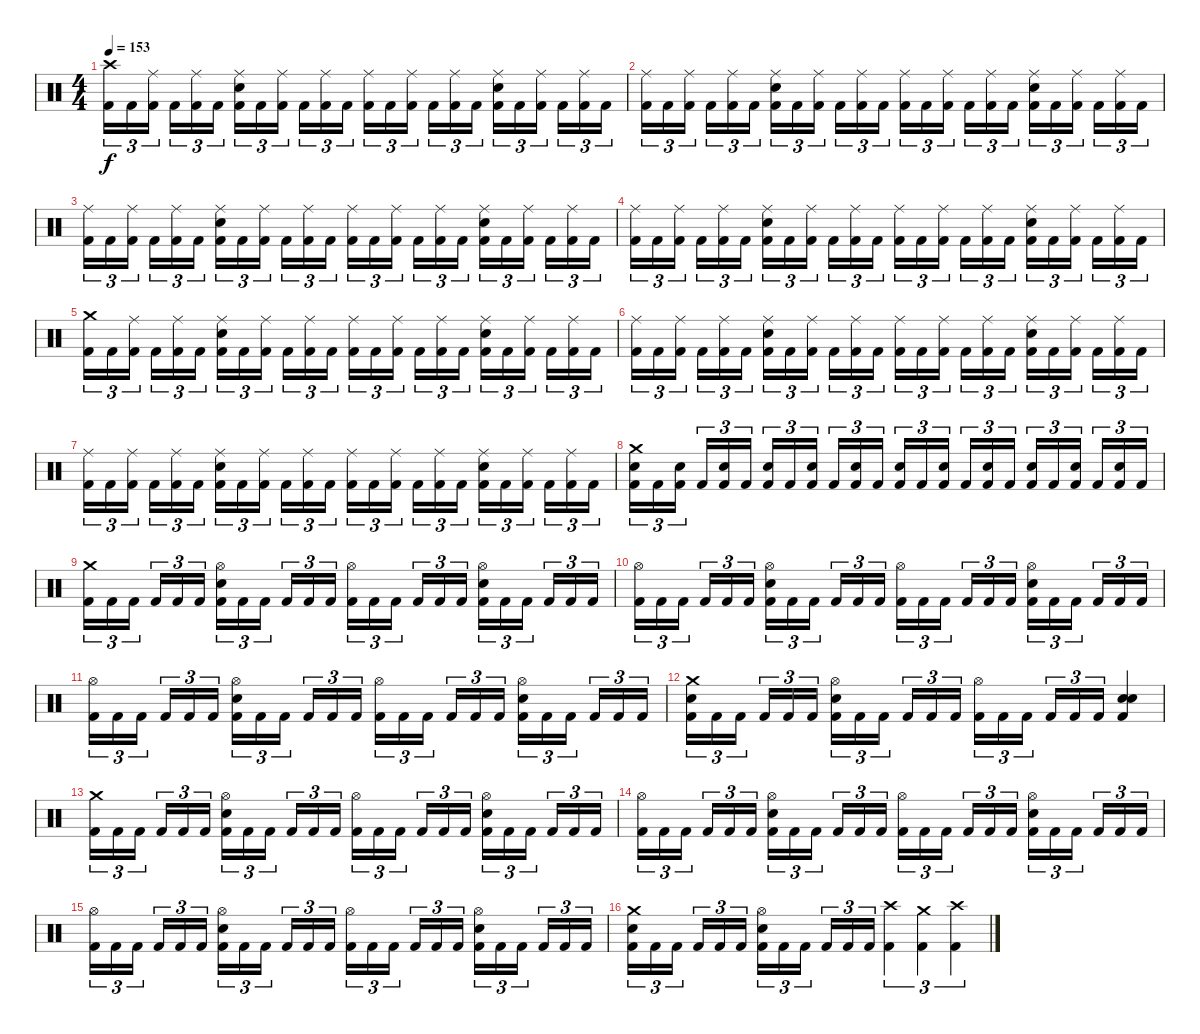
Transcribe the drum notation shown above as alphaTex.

\track "" {instrument percussion}
\staff {score}
\articulation defaults
\ts (4 4)
\section ("" "")
\tempo 153
\clef neutral
\ks c
("Crash high (hit)" "Kick (hit) 2").16{tu (3 2) dy f} "Kick (hit) 2".16{tu (3 2)} ("Ride (middle)" "Kick (hit) 2").16{tu (3 2)} "Kick (hit) 2".16{tu (3 2)} ("Ride (middle)" "Kick (hit) 2").16{tu (3 2)} "Kick (hit) 2".16{tu (3 2)} ("Ride (middle)" "Electric Snare (hit)" "Kick (hit) 2").16{tu (3 2)} "Kick (hit) 2".16{tu (3 2)} ("Ride (middle)" "Kick (hit) 2").16{tu (3 2)} "Kick (hit) 2".16{tu (3 2)} ("Ride (middle)" "Kick (hit) 2").16{tu (3 2)} "Kick (hit) 2".16{tu (3 2)} ("Ride (middle)" "Kick (hit) 2").16{tu (3 2)} "Kick (hit) 2".16{tu (3 2)} ("Ride (middle)" "Kick (hit) 2").16{tu (3 2)} "Kick (hit) 2".16{tu (3 2)} ("Ride (middle)" "Kick (hit) 2").16{tu (3 2)} "Kick (hit) 2".16{tu (3 2)} ("Ride (middle)" "Electric Snare (hit)" "Kick (hit) 2").16{tu (3 2)} "Kick (hit) 2".16{tu (3 2)} ("Ride (middle)" "Kick (hit) 2").16{tu (3 2)} "Kick (hit) 2".16{tu (3 2)} ("Ride (middle)" "Kick (hit) 2").16{tu (3 2)} "Kick (hit) 2".16{tu (3 2)} |
("Ride (middle)" "Kick (hit) 2").16{tu (3 2)} "Kick (hit) 2".16{tu (3 2)} ("Ride (middle)" "Kick (hit) 2").16{tu (3 2)} "Kick (hit) 2".16{tu (3 2)} ("Ride (middle)" "Kick (hit) 2").16{tu (3 2)} "Kick (hit) 2".16{tu (3 2)} ("Ride (middle)" "Electric Snare (hit)" "Kick (hit) 2").16{tu (3 2)} "Kick (hit) 2".16{tu (3 2)} ("Ride (middle)" "Kick (hit) 2").16{tu (3 2)} "Kick (hit) 2".16{tu (3 2)} ("Ride (middle)" "Kick (hit) 2").16{tu (3 2)} "Kick (hit) 2".16{tu (3 2)} ("Ride (middle)" "Kick (hit) 2").16{tu (3 2)} "Kick (hit) 2".16{tu (3 2)} ("Ride (middle)" "Kick (hit) 2").16{tu (3 2)} "Kick (hit) 2".16{tu (3 2)} ("Ride (middle)" "Kick (hit) 2").16{tu (3 2)} "Kick (hit) 2".16{tu (3 2)} ("Ride (middle)" "Electric Snare (hit)" "Kick (hit) 2").16{tu (3 2)} "Kick (hit) 2".16{tu (3 2)} ("Ride (middle)" "Kick (hit) 2").16{tu (3 2)} "Kick (hit) 2".16{tu (3 2)} ("Ride (middle)" "Kick (hit) 2").16{tu (3 2)} "Kick (hit) 2".16{tu (3 2)} |
("Ride (middle)" "Kick (hit) 2").16{tu (3 2)} "Kick (hit) 2".16{tu (3 2)} ("Ride (middle)" "Kick (hit) 2").16{tu (3 2)} "Kick (hit) 2".16{tu (3 2)} ("Ride (middle)" "Kick (hit) 2").16{tu (3 2)} "Kick (hit) 2".16{tu (3 2)} ("Ride (middle)" "Electric Snare (hit)" "Kick (hit) 2").16{tu (3 2)} "Kick (hit) 2".16{tu (3 2)} ("Ride (middle)" "Kick (hit) 2").16{tu (3 2)} "Kick (hit) 2".16{tu (3 2)} ("Ride (middle)" "Kick (hit) 2").16{tu (3 2)} "Kick (hit) 2".16{tu (3 2)} ("Ride (middle)" "Kick (hit) 2").16{tu (3 2)} "Kick (hit) 2".16{tu (3 2)} ("Ride (middle)" "Kick (hit) 2").16{tu (3 2)} "Kick (hit) 2".16{tu (3 2)} ("Ride (middle)" "Kick (hit) 2").16{tu (3 2)} "Kick (hit) 2".16{tu (3 2)} ("Ride (middle)" "Electric Snare (hit)" "Kick (hit) 2").16{tu (3 2)} "Kick (hit) 2".16{tu (3 2)} ("Ride (middle)" "Kick (hit) 2").16{tu (3 2)} "Kick (hit) 2".16{tu (3 2)} ("Ride (middle)" "Kick (hit) 2").16{tu (3 2)} "Kick (hit) 2".16{tu (3 2)} |
("Ride (middle)" "Kick (hit) 2").16{tu (3 2)} "Kick (hit) 2".16{tu (3 2)} ("Ride (middle)" "Kick (hit) 2").16{tu (3 2)} "Kick (hit) 2".16{tu (3 2)} ("Ride (middle)" "Kick (hit) 2").16{tu (3 2)} "Kick (hit) 2".16{tu (3 2)} ("Ride (middle)" "Electric Snare (hit)" "Kick (hit) 2").16{tu (3 2)} "Kick (hit) 2".16{tu (3 2)} ("Ride (middle)" "Kick (hit) 2").16{tu (3 2)} "Kick (hit) 2".16{tu (3 2)} ("Ride (middle)" "Kick (hit) 2").16{tu (3 2)} "Kick (hit) 2".16{tu (3 2)} ("Ride (middle)" "Kick (hit) 2").16{tu (3 2)} "Kick (hit) 2".16{tu (3 2)} ("Ride (middle)" "Kick (hit) 2").16{tu (3 2)} "Kick (hit) 2".16{tu (3 2)} ("Ride (middle)" "Kick (hit) 2").16{tu (3 2)} "Kick (hit) 2".16{tu (3 2)} ("Ride (middle)" "Electric Snare (hit)" "Kick (hit) 2").16{tu (3 2)} "Kick (hit) 2".16{tu (3 2)} ("Ride (middle)" "Kick (hit) 2").16{tu (3 2)} "Kick (hit) 2".16{tu (3 2)} ("Ride (middle)" "Kick (hit) 2").16{tu (3 2)} "Kick (hit) 2".16{tu (3 2)} |
("Crash medium (hit)" "Kick (hit) 2").16{tu (3 2)} "Kick (hit) 2".16{tu (3 2)} ("Ride (middle)" "Kick (hit) 2").16{tu (3 2)} "Kick (hit) 2".16{tu (3 2)} ("Ride (middle)" "Kick (hit) 2").16{tu (3 2)} "Kick (hit) 2".16{tu (3 2)} ("Ride (middle)" "Electric Snare (hit)" "Kick (hit) 2").16{tu (3 2)} "Kick (hit) 2".16{tu (3 2)} ("Ride (middle)" "Kick (hit) 2").16{tu (3 2)} "Kick (hit) 2".16{tu (3 2)} ("Ride (middle)" "Kick (hit) 2").16{tu (3 2)} "Kick (hit) 2".16{tu (3 2)} ("Ride (middle)" "Kick (hit) 2").16{tu (3 2)} "Kick (hit) 2".16{tu (3 2)} ("Ride (middle)" "Kick (hit) 2").16{tu (3 2)} "Kick (hit) 2".16{tu (3 2)} ("Ride (middle)" "Kick (hit) 2").16{tu (3 2)} "Kick (hit) 2".16{tu (3 2)} ("Ride (middle)" "Electric Snare (hit)" "Kick (hit) 2").16{tu (3 2)} "Kick (hit) 2".16{tu (3 2)} ("Ride (middle)" "Kick (hit) 2").16{tu (3 2)} "Kick (hit) 2".16{tu (3 2)} ("Ride (middle)" "Kick (hit) 2").16{tu (3 2)} "Kick (hit) 2".16{tu (3 2)} |
("Ride (middle)" "Kick (hit) 2").16{tu (3 2)} "Kick (hit) 2".16{tu (3 2)} ("Ride (middle)" "Kick (hit) 2").16{tu (3 2)} "Kick (hit) 2".16{tu (3 2)} ("Ride (middle)" "Kick (hit) 2").16{tu (3 2)} "Kick (hit) 2".16{tu (3 2)} ("Ride (middle)" "Electric Snare (hit)" "Kick (hit) 2").16{tu (3 2)} "Kick (hit) 2".16{tu (3 2)} ("Ride (middle)" "Kick (hit) 2").16{tu (3 2)} "Kick (hit) 2".16{tu (3 2)} ("Ride (middle)" "Kick (hit) 2").16{tu (3 2)} "Kick (hit) 2".16{tu (3 2)} ("Ride (middle)" "Kick (hit) 2").16{tu (3 2)} "Kick (hit) 2".16{tu (3 2)} ("Ride (middle)" "Kick (hit) 2").16{tu (3 2)} "Kick (hit) 2".16{tu (3 2)} ("Ride (middle)" "Kick (hit) 2").16{tu (3 2)} "Kick (hit) 2".16{tu (3 2)} ("Ride (middle)" "Electric Snare (hit)" "Kick (hit) 2").16{tu (3 2)} "Kick (hit) 2".16{tu (3 2)} ("Ride (middle)" "Kick (hit) 2").16{tu (3 2)} "Kick (hit) 2".16{tu (3 2)} ("Ride (middle)" "Kick (hit) 2").16{tu (3 2)} "Kick (hit) 2".16{tu (3 2)} |
("Ride (middle)" "Kick (hit) 2").16{tu (3 2)} "Kick (hit) 2".16{tu (3 2)} ("Ride (middle)" "Kick (hit) 2").16{tu (3 2)} "Kick (hit) 2".16{tu (3 2)} ("Ride (middle)" "Kick (hit) 2").16{tu (3 2)} "Kick (hit) 2".16{tu (3 2)} ("Ride (middle)" "Electric Snare (hit)" "Kick (hit) 2").16{tu (3 2)} "Kick (hit) 2".16{tu (3 2)} ("Ride (middle)" "Kick (hit) 2").16{tu (3 2)} "Kick (hit) 2".16{tu (3 2)} ("Ride (middle)" "Kick (hit) 2").16{tu (3 2)} "Kick (hit) 2".16{tu (3 2)} ("Ride (middle)" "Kick (hit) 2").16{tu (3 2)} "Kick (hit) 2".16{tu (3 2)} ("Ride (middle)" "Kick (hit) 2").16{tu (3 2)} "Kick (hit) 2".16{tu (3 2)} ("Ride (middle)" "Kick (hit) 2").16{tu (3 2)} "Kick (hit) 2".16{tu (3 2)} ("Ride (middle)" "Electric Snare (hit)" "Kick (hit) 2").16{tu (3 2)} "Kick (hit) 2".16{tu (3 2)} ("Ride (middle)" "Kick (hit) 2").16{tu (3 2)} "Kick (hit) 2".16{tu (3 2)} ("Ride (middle)" "Kick (hit) 2").16{tu (3 2)} "Kick (hit) 2".16{tu (3 2)} |
("Crash medium (hit)" "Electric Snare (hit)" "Kick (hit) 2").16{tu (3 2)} "Kick (hit) 2".16{tu (3 2)} ("Electric Snare (hit)" "Kick (hit) 2").16{tu (3 2)} "Kick (hit) 2".16{tu (3 2)} ("Electric Snare (hit)" "Kick (hit) 2").16{tu (3 2)} "Kick (hit) 2".16{tu (3 2)} ("Electric Snare (hit)" "Kick (hit) 2").16{tu (3 2)} "Kick (hit) 2".16{tu (3 2)} ("Electric Snare (hit)" "Kick (hit) 2").16{tu (3 2)} "Kick (hit) 2".16{tu (3 2)} ("Electric Snare (hit)" "Kick (hit) 2").16{tu (3 2)} "Kick (hit) 2".16{tu (3 2)} ("Electric Snare (hit)" "Kick (hit) 2").16{tu (3 2)} "Kick (hit) 2".16{tu (3 2)} ("Electric Snare (hit)" "Kick (hit) 2").16{tu (3 2)} "Kick (hit) 2".16{tu (3 2)} ("Electric Snare (hit)" "Kick (hit) 2").16{tu (3 2)} "Kick (hit) 2".16{tu (3 2)} ("Electric Snare (hit)" "Kick (hit) 2").16{tu (3 2)} "Kick (hit) 2".16{tu (3 2)} ("Electric Snare (hit)" "Kick (hit) 2").16{tu (3 2)} "Kick (hit) 2".16{tu (3 2)} ("Electric Snare (hit)" "Kick (hit) 2").16{tu (3 2)} "Kick (hit) 2".16{tu (3 2)} |
\section ("" "")
("Crash medium (hit)" "Kick (hit) 2").16{tu (3 2)} "Kick (hit) 2".16{tu (3 2)} "Kick (hit) 2".16{tu (3 2)} "Kick (hit) 2".16{tu (3 2)} "Kick (hit) 2".16{tu (3 2)} "Kick (hit) 2".16{tu (3 2)} ("Hi-Hat (open)" "Electric Snare (hit)" "Kick (hit) 2").16{tu (3 2)} "Kick (hit) 2".16{tu (3 2)} "Kick (hit) 2".16{tu (3 2)} "Kick (hit) 2".16{tu (3 2)} "Kick (hit) 2".16{tu (3 2)} "Kick (hit) 2".16{tu (3 2)} ("Hi-Hat (open)" "Kick (hit) 2").16{tu (3 2)} "Kick (hit) 2".16{tu (3 2)} "Kick (hit) 2".16{tu (3 2)} "Kick (hit) 2".16{tu (3 2)} "Kick (hit) 2".16{tu (3 2)} "Kick (hit) 2".16{tu (3 2)} ("Hi-Hat (open)" "Electric Snare (hit)" "Kick (hit) 2").16{tu (3 2)} "Kick (hit) 2".16{tu (3 2)} "Kick (hit) 2".16{tu (3 2)} "Kick (hit) 2".16{tu (3 2)} "Kick (hit) 2".16{tu (3 2)} "Kick (hit) 2".16{tu (3 2)} |
("Hi-Hat (open)" "Kick (hit) 2").16{tu (3 2)} "Kick (hit) 2".16{tu (3 2)} "Kick (hit) 2".16{tu (3 2)} "Kick (hit) 2".16{tu (3 2)} "Kick (hit) 2".16{tu (3 2)} "Kick (hit) 2".16{tu (3 2)} ("Hi-Hat (open)" "Electric Snare (hit)" "Kick (hit) 2").16{tu (3 2)} "Kick (hit) 2".16{tu (3 2)} "Kick (hit) 2".16{tu (3 2)} "Kick (hit) 2".16{tu (3 2)} "Kick (hit) 2".16{tu (3 2)} "Kick (hit) 2".16{tu (3 2)} ("Hi-Hat (open)" "Kick (hit) 2").16{tu (3 2)} "Kick (hit) 2".16{tu (3 2)} "Kick (hit) 2".16{tu (3 2)} "Kick (hit) 2".16{tu (3 2)} "Kick (hit) 2".16{tu (3 2)} "Kick (hit) 2".16{tu (3 2)} ("Hi-Hat (open)" "Electric Snare (hit)" "Kick (hit) 2").16{tu (3 2)} "Kick (hit) 2".16{tu (3 2)} "Kick (hit) 2".16{tu (3 2)} "Kick (hit) 2".16{tu (3 2)} "Kick (hit) 2".16{tu (3 2)} "Kick (hit) 2".16{tu (3 2)} |
("Hi-Hat (open)" "Kick (hit) 2").16{tu (3 2)} "Kick (hit) 2".16{tu (3 2)} "Kick (hit) 2".16{tu (3 2)} "Kick (hit) 2".16{tu (3 2)} "Kick (hit) 2".16{tu (3 2)} "Kick (hit) 2".16{tu (3 2)} ("Hi-Hat (open)" "Electric Snare (hit)" "Kick (hit) 2").16{tu (3 2)} "Kick (hit) 2".16{tu (3 2)} "Kick (hit) 2".16{tu (3 2)} "Kick (hit) 2".16{tu (3 2)} "Kick (hit) 2".16{tu (3 2)} "Kick (hit) 2".16{tu (3 2)} ("Hi-Hat (open)" "Kick (hit) 2").16{tu (3 2)} "Kick (hit) 2".16{tu (3 2)} "Kick (hit) 2".16{tu (3 2)} "Kick (hit) 2".16{tu (3 2)} "Kick (hit) 2".16{tu (3 2)} "Kick (hit) 2".16{tu (3 2)} ("Hi-Hat (open)" "Electric Snare (hit)" "Kick (hit) 2").16{tu (3 2)} "Kick (hit) 2".16{tu (3 2)} "Kick (hit) 2".16{tu (3 2)} "Kick (hit) 2".16{tu (3 2)} "Kick (hit) 2".16{tu (3 2)} "Kick (hit) 2".16{tu (3 2)} |
("Crash medium (hit)" "Electric Snare (hit)" "Kick (hit) 2").16{tu (3 2)} "Kick (hit) 2".16{tu (3 2)} "Kick (hit) 2".16{tu (3 2)} "Kick (hit) 2".16{tu (3 2)} "Kick (hit) 2".16{tu (3 2)} "Kick (hit) 2".16{tu (3 2)} ("Hi-Hat (open)" "Electric Snare (hit)" "Kick (hit) 2").16{tu (3 2)} "Kick (hit) 2".16{tu (3 2)} "Kick (hit) 2".16{tu (3 2)} "Kick (hit) 2".16{tu (3 2)} "Kick (hit) 2".16{tu (3 2)} "Kick (hit) 2".16{tu (3 2)} ("Hi-Hat (open)" "Kick (hit) 2").16{tu (3 2)} "Kick (hit) 2".16{tu (3 2)} "Kick (hit) 2".16{tu (3 2)} "Kick (hit) 2".16{tu (3 2)} "Kick (hit) 2".16{tu (3 2)} "Kick (hit) 2".16{tu (3 2)} ("Electric Snare (hit)" "Electric Snare (hit)" "Kick (hit) 2").4 |
("Crash medium (hit)" "Kick (hit) 2").16{tu (3 2)} "Kick (hit) 2".16{tu (3 2)} "Kick (hit) 2".16{tu (3 2)} "Kick (hit) 2".16{tu (3 2)} "Kick (hit) 2".16{tu (3 2)} "Kick (hit) 2".16{tu (3 2)} ("Hi-Hat (open)" "Electric Snare (hit)" "Kick (hit) 2").16{tu (3 2)} "Kick (hit) 2".16{tu (3 2)} "Kick (hit) 2".16{tu (3 2)} "Kick (hit) 2".16{tu (3 2)} "Kick (hit) 2".16{tu (3 2)} "Kick (hit) 2".16{tu (3 2)} ("Hi-Hat (open)" "Kick (hit) 2").16{tu (3 2)} "Kick (hit) 2".16{tu (3 2)} "Kick (hit) 2".16{tu (3 2)} "Kick (hit) 2".16{tu (3 2)} "Kick (hit) 2".16{tu (3 2)} "Kick (hit) 2".16{tu (3 2)} ("Hi-Hat (open)" "Electric Snare (hit)" "Kick (hit) 2").16{tu (3 2)} "Kick (hit) 2".16{tu (3 2)} "Kick (hit) 2".16{tu (3 2)} "Kick (hit) 2".16{tu (3 2)} "Kick (hit) 2".16{tu (3 2)} "Kick (hit) 2".16{tu (3 2)} |
("Hi-Hat (open)" "Kick (hit) 2").16{tu (3 2)} "Kick (hit) 2".16{tu (3 2)} "Kick (hit) 2".16{tu (3 2)} "Kick (hit) 2".16{tu (3 2)} "Kick (hit) 2".16{tu (3 2)} "Kick (hit) 2".16{tu (3 2)} ("Hi-Hat (open)" "Electric Snare (hit)" "Kick (hit) 2").16{tu (3 2)} "Kick (hit) 2".16{tu (3 2)} "Kick (hit) 2".16{tu (3 2)} "Kick (hit) 2".16{tu (3 2)} "Kick (hit) 2".16{tu (3 2)} "Kick (hit) 2".16{tu (3 2)} ("Hi-Hat (open)" "Kick (hit) 2").16{tu (3 2)} "Kick (hit) 2".16{tu (3 2)} "Kick (hit) 2".16{tu (3 2)} "Kick (hit) 2".16{tu (3 2)} "Kick (hit) 2".16{tu (3 2)} "Kick (hit) 2".16{tu (3 2)} ("Hi-Hat (open)" "Electric Snare (hit)" "Kick (hit) 2").16{tu (3 2)} "Kick (hit) 2".16{tu (3 2)} "Kick (hit) 2".16{tu (3 2)} "Kick (hit) 2".16{tu (3 2)} "Kick (hit) 2".16{tu (3 2)} "Kick (hit) 2".16{tu (3 2)} |
("Hi-Hat (open)" "Kick (hit) 2").16{tu (3 2)} "Kick (hit) 2".16{tu (3 2)} "Kick (hit) 2".16{tu (3 2)} "Kick (hit) 2".16{tu (3 2)} "Kick (hit) 2".16{tu (3 2)} "Kick (hit) 2".16{tu (3 2)} ("Hi-Hat (open)" "Electric Snare (hit)" "Kick (hit) 2").16{tu (3 2)} "Kick (hit) 2".16{tu (3 2)} "Kick (hit) 2".16{tu (3 2)} "Kick (hit) 2".16{tu (3 2)} "Kick (hit) 2".16{tu (3 2)} "Kick (hit) 2".16{tu (3 2)} ("Hi-Hat (open)" "Kick (hit) 2").16{tu (3 2)} "Kick (hit) 2".16{tu (3 2)} "Kick (hit) 2".16{tu (3 2)} "Kick (hit) 2".16{tu (3 2)} "Kick (hit) 2".16{tu (3 2)} "Kick (hit) 2".16{tu (3 2)} ("Hi-Hat (open)" "Electric Snare (hit)" "Kick (hit) 2").16{tu (3 2)} "Kick (hit) 2".16{tu (3 2)} "Kick (hit) 2".16{tu (3 2)} "Kick (hit) 2".16{tu (3 2)} "Kick (hit) 2".16{tu (3 2)} "Kick (hit) 2".16{tu (3 2)} |
("Crash medium (hit)" "Electric Snare (hit)" "Kick (hit) 2").16{tu (3 2)} "Kick (hit) 2".16{tu (3 2)} "Kick (hit) 2".16{tu (3 2)} "Kick (hit) 2".16{tu (3 2)} "Kick (hit) 2".16{tu (3 2)} "Kick (hit) 2".16{tu (3 2)} ("Hi-Hat (open)" "Electric Snare (hit)" "Kick (hit) 2").16{tu (3 2)} "Kick (hit) 2".16{tu (3 2)} "Kick (hit) 2".16{tu (3 2)} "Kick (hit) 2".16{tu (3 2)} "Kick (hit) 2".16{tu (3 2)} "Kick (hit) 2".16{tu (3 2)} ("Crash high (hit)" "Kick (hit) 2").4{tu (3 2)} ("Crash medium (hit)" "Kick (hit) 2").4{tu (3 2)} ("Crash high (hit)" "Kick (hit) 2").4{tu (3 2)}
